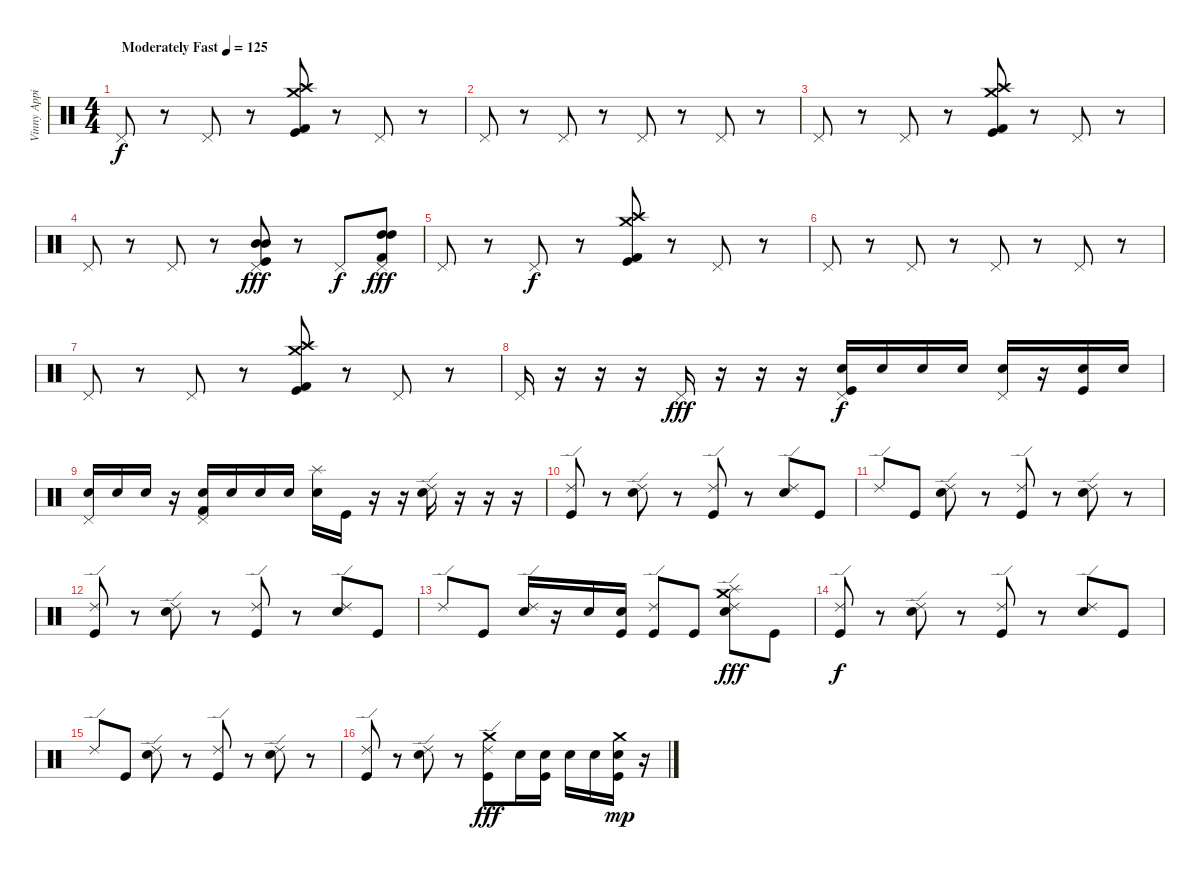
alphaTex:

\track ("Vinny Appice - Drums" "Vinny Appi") {instrument percussion}
\staff {score}
\articulation defaults
\ts (4 4)
\tempo (125 "Moderately Fast")
\clef neutral
\ks c "Pedal Hi-Hat (hit)".8{dy f}
r.8 "Pedal Hi-Hat (hit)".8 r.8 ("Kick (hit) 2" "Crash high (hit)" "Crash medium (hit)" "Kick (hit)").8 r.8 "Pedal Hi-Hat (hit)".8 r.8 |
"Pedal Hi-Hat (hit)".8 r.8 "Pedal Hi-Hat (hit)".8 r.8 "Pedal Hi-Hat (hit)".8 r.8 "Pedal Hi-Hat (hit)".8 r.8 |
"Pedal Hi-Hat (hit)".8 r.8 "Pedal Hi-Hat (hit)".8 r.8 ("Kick (hit) 2" "Crash high (hit)" "Crash medium (hit)" "Kick (hit)").8 r.8 "Pedal Hi-Hat (hit)".8 r.8 |
"Pedal Hi-Hat (hit)".8 r.8 "Pedal Hi-Hat (hit)".8 r.8 ("Pedal Hi-Hat (hit)" "Kick (hit)" "Mid Tom (hit)" "Mid Tom (hit)").8{dy fff volume 11} r.8 "Pedal Hi-Hat (hit)".8{dy f volume 8} ("Pedal Hi-Hat (hit)" "Kick (hit) 2" "High Tom (hit)" "High Tom (hit)").8{dy fff volume 11} |
"Pedal Hi-Hat (hit)".8 r.8 "Pedal Hi-Hat (hit)".8{dy f} r.8 ("Kick (hit) 2" "Crash high (hit)" "Crash medium (hit)" "Kick (hit)").8 r.8 "Pedal Hi-Hat (hit)".8 r.8 |
"Pedal Hi-Hat (hit)".8 r.8 "Pedal Hi-Hat (hit)".8 r.8 "Pedal Hi-Hat (hit)".8 r.8 "Pedal Hi-Hat (hit)".8 r.8 |
"Pedal Hi-Hat (hit)".8 r.8 "Pedal Hi-Hat (hit)".8 r.8 ("Kick (hit) 2" "Crash high (hit)" "Crash medium (hit)" "Kick (hit)").8 r.8 "Pedal Hi-Hat (hit)".8 r.8 |
"Pedal Hi-Hat (hit)".16 r.16 r.16 r.16 "Pedal Hi-Hat (hit)".16{dy fff} r.16 r.16 r.16 ("Pedal Hi-Hat (hit)" "Kick (hit)" "Snare (hit) 2").16{dy f} "Snare (hit) 2".16 "Snare (hit) 2".16 "Snare (hit) 2".16 ("Pedal Hi-Hat (hit)" "Snare (hit) 2").16 r.16 ("Kick (hit)" "Snare (hit) 2").16 "Snare (hit) 2".16 |
("Pedal Hi-Hat (hit)" "Snare (hit) 2").16 "Snare (hit) 2".16 "Snare (hit) 2".16 r.16 ("Pedal Hi-Hat (hit)" "Kick (hit) 2" "Snare (hit) 2").16 "Snare (hit) 2".16 "Snare (hit) 2".16 "Snare (hit) 2".16 ("Snare (hit) 2" "Splash (hit)").16 "Kick (hit)".16 r.16 r.16 ("Snare (hit) 2" "Ride (edge) 2").16 r.16 r.16 r.16 |
("Ride (edge) 2" "Kick (hit)").8 r.8 ("Ride (edge) 2" "Snare (hit) 2").8 r.8 ("Ride (edge) 2" "Kick (hit)").8 r.8 ("Ride (edge) 2" "Snare (hit) 2").8 "Kick (hit)".8 |
"Ride (edge) 2".8 "Kick (hit)".8 ("Ride (edge) 2" "Snare (hit) 2").8 r.8 ("Ride (edge) 2" "Kick (hit)").8 r.8 ("Ride (edge) 2" "Snare (hit) 2").8 r.8 |
("Ride (edge) 2" "Kick (hit)").8 r.8 ("Ride (edge) 2" "Snare (hit) 2").8 r.8 ("Ride (edge) 2" "Kick (hit)").8 r.8 ("Ride (edge) 2" "Snare (hit) 2").8 "Kick (hit)".8 |
"Ride (edge) 2".8 "Kick (hit)".8 ("Ride (edge) 2" "Snare (hit) 2").16 r.16 "Snare (hit) 2".16 ("Kick (hit)" "Snare (hit) 2").16 ("Kick (hit)" "Ride (edge) 2").8 "Kick (hit)".8 ("Ride (edge) 2" "Snare (hit) 2" "Splash (hit)" "Crash medium (hit)").8{dy fff} "Kick (hit)".8 |
("Ride (edge) 2" "Kick (hit)").8{dy f} r.8 ("Ride (edge) 2" "Snare (hit) 2").8 r.8 ("Ride (edge) 2" "Kick (hit)").8 r.8 ("Ride (edge) 2" "Snare (hit) 2").8 "Kick (hit)".8 |
"Ride (edge) 2".8 "Kick (hit)".8 ("Ride (edge) 2" "Snare (hit) 2").8 r.8 ("Ride (edge) 2" "Kick (hit)").8 r.8 ("Ride (edge) 2" "Snare (hit) 2").8 r.8 |
("Ride (edge) 2" "Kick (hit)").8 r.8 ("Ride (edge) 2" "Snare (hit) 2").8 r.8 ("Ride (edge) 2" "Kick (hit)" "Crash medium (hit)").8{dy fff} "Snare (hit) 2".16 ("Kick (hit)" "Snare (hit) 2").16 "Snare (hit) 2".16 "Snare (hit) 2".16 ("Kick (hit)" "Electric Snare (hit)" "Crash medium (hit)").16{dy mp} r.16
